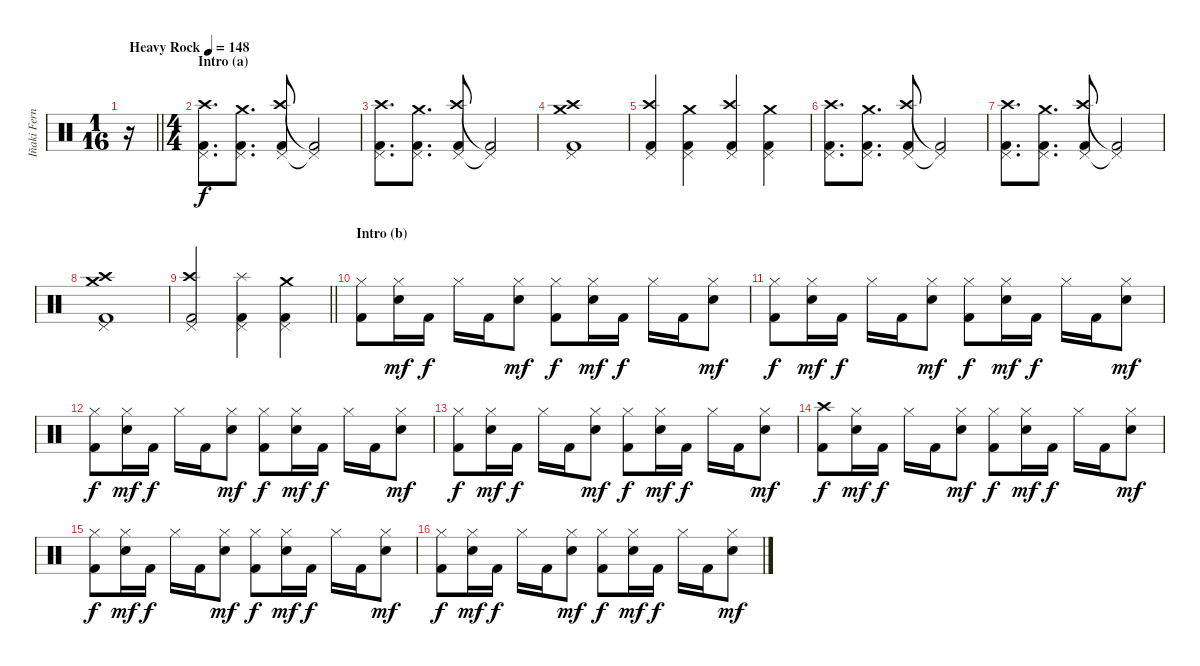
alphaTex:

\track ("Iñaki Fernández" "Iñaki Fern") {instrument percussion}
\staff {score}
\articulation defaults
\ts (1 16)
\tempo (148 "Heavy Rock")
\clef neutral
\barLineRight lightlight
\ks c
r.16{dy f} |
\ts (4 4)
\section ("" "Intro (a)")
("Pedal Hi-Hat (hit)" "Crash high (hit)" "Kick (hit) 2").8{d} ("Pedal Hi-Hat (hit)" "Crash medium (hit)" "Kick (hit) 2").8{d} ("Pedal Hi-Hat (hit)" "Crash high (hit)" "Kick (hit) 2").8 ("Pedal Hi-Hat (hit)"{t} "Kick (hit) 2"{t}).2 |
("Pedal Hi-Hat (hit)" "Crash high (hit)" "Kick (hit) 2").8{d} ("Pedal Hi-Hat (hit)" "Crash medium (hit)" "Kick (hit) 2").8{d} ("Pedal Hi-Hat (hit)" "Crash high (hit)" "Kick (hit) 2").8 ("Pedal Hi-Hat (hit)"{t} "Kick (hit) 2"{t}).2 |
("Pedal Hi-Hat (hit)" "Crash medium (hit)" "Crash high (hit)" "Kick (hit) 2").1 |
("Pedal Hi-Hat (hit)" "Crash high (hit)" "Kick (hit) 2").4 ("Pedal Hi-Hat (hit)" "Crash medium (hit)" "Kick (hit) 2").4 ("Pedal Hi-Hat (hit)" "Crash high (hit)" "Kick (hit) 2").4 ("Pedal Hi-Hat (hit)" "Crash medium (hit)" "Kick (hit) 2").4 |
("Pedal Hi-Hat (hit)" "Crash high (hit)" "Kick (hit) 2").8{d} ("Pedal Hi-Hat (hit)" "Crash medium (hit)" "Kick (hit) 2").8{d} ("Pedal Hi-Hat (hit)" "Crash high (hit)" "Kick (hit) 2").8 ("Pedal Hi-Hat (hit)"{t} "Kick (hit) 2"{t}).2 |
("Pedal Hi-Hat (hit)" "Crash high (hit)" "Kick (hit) 2").8{d} ("Pedal Hi-Hat (hit)" "Crash medium (hit)" "Kick (hit) 2").8{d} ("Pedal Hi-Hat (hit)" "Crash high (hit)" "Kick (hit) 2").8 ("Pedal Hi-Hat (hit)"{t} "Kick (hit) 2"{t}).2 |
("Pedal Hi-Hat (hit)" "Crash medium (hit)" "Crash high (hit)" "Kick (hit) 2").1 |
\barLineRight lightlight
("Pedal Hi-Hat (hit)" "Crash high (hit)" "Kick (hit) 2").2 ("Pedal Hi-Hat (hit)" "Splash (hit)" "Kick (hit) 2").4 ("Pedal Hi-Hat (hit)" "Crash medium (hit)" "Kick (hit) 2").4 |
\section ("" "Intro (b)")
("Hi-Hat (closed)" "Kick (hit) 2").8 ("Hi-Hat (closed)" "Snare (hit) 2").16{dy mf} "Kick (hit) 2".16{dy f} "Hi-Hat (closed)".16 "Kick (hit) 2".16 ("Hi-Hat (closed)" "Snare (hit) 2").8{dy mf} ("Hi-Hat (closed)" "Kick (hit) 2").8{dy f} ("Hi-Hat (closed)" "Snare (hit) 2").16{dy mf} "Kick (hit) 2".16{dy f} "Hi-Hat (closed)".16 "Kick (hit) 2".16 ("Hi-Hat (closed)" "Snare (hit) 2").8{dy mf} |
("Hi-Hat (closed)" "Kick (hit) 2").8{dy f} ("Hi-Hat (closed)" "Snare (hit) 2").16{dy mf} "Kick (hit) 2".16{dy f} "Hi-Hat (closed)".16 "Kick (hit) 2".16 ("Hi-Hat (closed)" "Snare (hit) 2").8{dy mf} ("Hi-Hat (closed)" "Kick (hit) 2").8{dy f} ("Hi-Hat (closed)" "Snare (hit) 2").16{dy mf} "Kick (hit) 2".16{dy f} "Hi-Hat (closed)".16 "Kick (hit) 2".16 ("Hi-Hat (closed)" "Snare (hit) 2").8{dy mf} |
("Hi-Hat (closed)" "Kick (hit) 2").8{dy f} ("Hi-Hat (closed)" "Snare (hit) 2").16{dy mf} "Kick (hit) 2".16{dy f} "Hi-Hat (closed)".16 "Kick (hit) 2".16 ("Hi-Hat (closed)" "Snare (hit) 2").8{dy mf} ("Hi-Hat (closed)" "Kick (hit) 2").8{dy f} ("Hi-Hat (closed)" "Snare (hit) 2").16{dy mf} "Kick (hit) 2".16{dy f} "Hi-Hat (closed)".16 "Kick (hit) 2".16 ("Hi-Hat (closed)" "Snare (hit) 2").8{dy mf} |
("Hi-Hat (closed)" "Kick (hit) 2").8{dy f} ("Hi-Hat (closed)" "Snare (hit) 2").16{dy mf} "Kick (hit) 2".16{dy f} "Hi-Hat (closed)".16 "Kick (hit) 2".16 ("Hi-Hat (closed)" "Snare (hit) 2").8{dy mf} ("Hi-Hat (closed)" "Kick (hit) 2").8{dy f} ("Hi-Hat (closed)" "Snare (hit) 2").16{dy mf} "Kick (hit) 2".16{dy f} "Hi-Hat (closed)".16 "Kick (hit) 2".16 ("Hi-Hat (closed)" "Snare (hit) 2").8{dy mf} |
("Crash high (hit)" "Kick (hit) 2").8{dy f} ("Hi-Hat (closed)" "Snare (hit) 2").16{dy mf} "Kick (hit) 2".16{dy f} "Hi-Hat (closed)".16 "Kick (hit) 2".16 ("Hi-Hat (closed)" "Snare (hit) 2").8{dy mf} ("Hi-Hat (closed)" "Kick (hit) 2").8{dy f} ("Hi-Hat (closed)" "Snare (hit) 2").16{dy mf} "Kick (hit) 2".16{dy f} "Hi-Hat (closed)".16 "Kick (hit) 2".16 ("Hi-Hat (closed)" "Snare (hit) 2").8{dy mf} |
("Hi-Hat (closed)" "Kick (hit) 2").8{dy f} ("Hi-Hat (closed)" "Snare (hit) 2").16{dy mf} "Kick (hit) 2".16{dy f} "Hi-Hat (closed)".16 "Kick (hit) 2".16 ("Hi-Hat (closed)" "Snare (hit) 2").8{dy mf} ("Hi-Hat (closed)" "Kick (hit) 2").8{dy f} ("Hi-Hat (closed)" "Snare (hit) 2").16{dy mf} "Kick (hit) 2".16{dy f} "Hi-Hat (closed)".16 "Kick (hit) 2".16 ("Hi-Hat (closed)" "Snare (hit) 2").8{dy mf} |
("Hi-Hat (closed)" "Kick (hit) 2").8{dy f} ("Hi-Hat (closed)" "Snare (hit) 2").16{dy mf} "Kick (hit) 2".16{dy f} "Hi-Hat (closed)".16 "Kick (hit) 2".16 ("Hi-Hat (closed)" "Snare (hit) 2").8{dy mf} ("Hi-Hat (closed)" "Kick (hit) 2").8{dy f} ("Hi-Hat (closed)" "Snare (hit) 2").16{dy mf} "Kick (hit) 2".16{dy f} "Hi-Hat (closed)".16 "Kick (hit) 2".16 ("Hi-Hat (closed)" "Snare (hit) 2").8{dy mf}
